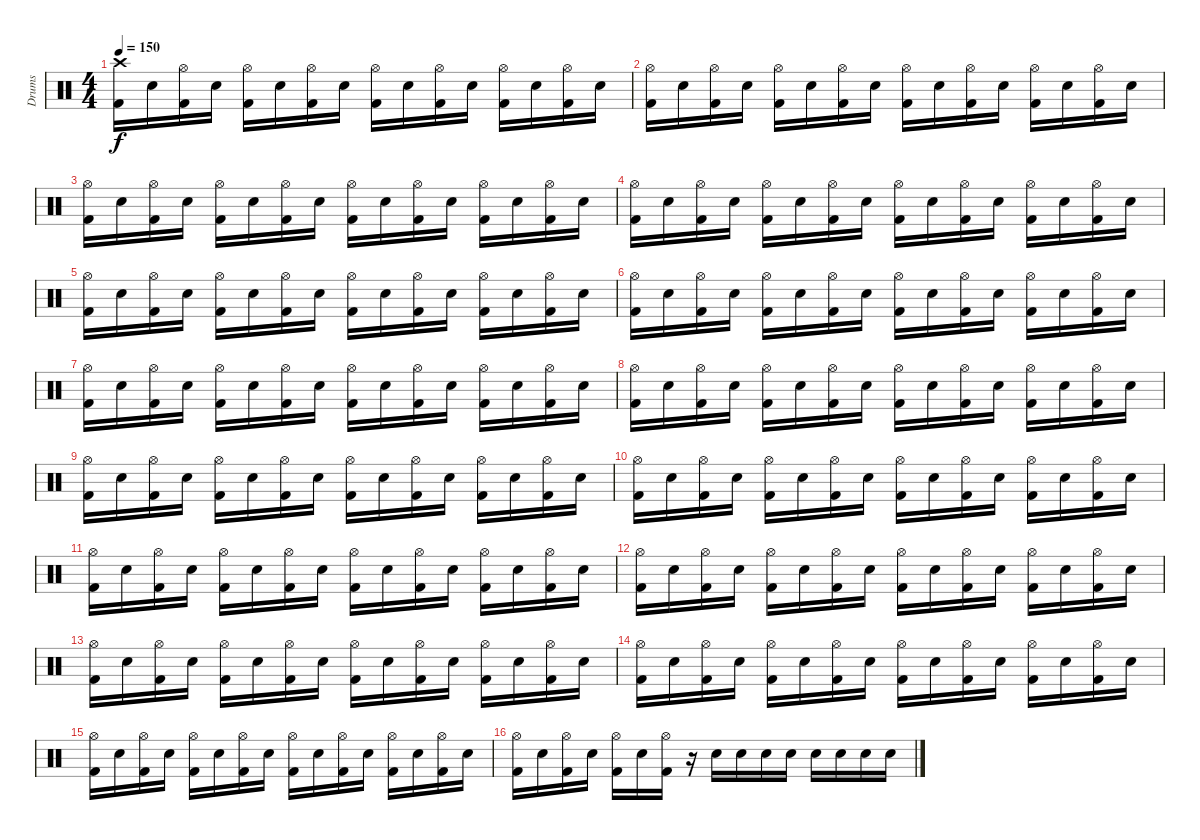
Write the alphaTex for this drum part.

\track ("Drums" "Drums") {instrument percussion}
\staff {score}
\articulation defaults
\ts (4 4)
\tempo 150
\clef neutral
\ks c
("Kick (hit) 2" "Crash high (hit)").16{dy f} "Electric Snare (hit)".16 ("Kick (hit) 2" "Hi-Hat (open)").16 "Electric Snare (hit)".16 ("Kick (hit) 2" "Hi-Hat (open)").16 "Electric Snare (hit)".16 ("Kick (hit) 2" "Hi-Hat (open)").16 "Electric Snare (hit)".16 ("Kick (hit) 2" "Hi-Hat (open)").16 "Electric Snare (hit)".16 ("Kick (hit) 2" "Hi-Hat (open)").16 "Electric Snare (hit)".16 ("Kick (hit) 2" "Hi-Hat (open)").16 "Electric Snare (hit)".16 ("Kick (hit) 2" "Hi-Hat (open)").16 "Electric Snare (hit)".16 |
("Kick (hit) 2" "Hi-Hat (open)").16 "Electric Snare (hit)".16 ("Kick (hit) 2" "Hi-Hat (open)").16 "Electric Snare (hit)".16 ("Kick (hit) 2" "Hi-Hat (open)").16 "Electric Snare (hit)".16 ("Kick (hit) 2" "Hi-Hat (open)").16 "Electric Snare (hit)".16 ("Kick (hit) 2" "Hi-Hat (open)").16 "Electric Snare (hit)".16 ("Kick (hit) 2" "Hi-Hat (open)").16 "Electric Snare (hit)".16 ("Kick (hit) 2" "Hi-Hat (open)").16 "Electric Snare (hit)".16 ("Kick (hit) 2" "Hi-Hat (open)").16 "Electric Snare (hit)".16 |
("Kick (hit) 2" "Hi-Hat (open)").16 "Electric Snare (hit)".16 ("Kick (hit) 2" "Hi-Hat (open)").16 "Electric Snare (hit)".16 ("Kick (hit) 2" "Hi-Hat (open)").16 "Electric Snare (hit)".16 ("Kick (hit) 2" "Hi-Hat (open)").16 "Electric Snare (hit)".16 ("Kick (hit) 2" "Hi-Hat (open)").16 "Electric Snare (hit)".16 ("Kick (hit) 2" "Hi-Hat (open)").16 "Electric Snare (hit)".16 ("Kick (hit) 2" "Hi-Hat (open)").16 "Electric Snare (hit)".16 ("Kick (hit) 2" "Hi-Hat (open)").16 "Electric Snare (hit)".16 |
("Kick (hit) 2" "Hi-Hat (open)").16 "Electric Snare (hit)".16 ("Kick (hit) 2" "Hi-Hat (open)").16 "Electric Snare (hit)".16 ("Kick (hit) 2" "Hi-Hat (open)").16 "Electric Snare (hit)".16 ("Kick (hit) 2" "Hi-Hat (open)").16 "Electric Snare (hit)".16 ("Kick (hit) 2" "Hi-Hat (open)").16 "Electric Snare (hit)".16 ("Kick (hit) 2" "Hi-Hat (open)").16 "Electric Snare (hit)".16 ("Kick (hit) 2" "Hi-Hat (open)").16 "Electric Snare (hit)".16 ("Kick (hit) 2" "Hi-Hat (open)").16 "Electric Snare (hit)".16 |
("Kick (hit) 2" "Hi-Hat (open)").16 "Electric Snare (hit)".16 ("Kick (hit) 2" "Hi-Hat (open)").16 "Electric Snare (hit)".16 ("Kick (hit) 2" "Hi-Hat (open)").16 "Electric Snare (hit)".16 ("Kick (hit) 2" "Hi-Hat (open)").16 "Electric Snare (hit)".16 ("Kick (hit) 2" "Hi-Hat (open)").16 "Electric Snare (hit)".16 ("Kick (hit) 2" "Hi-Hat (open)").16 "Electric Snare (hit)".16 ("Kick (hit) 2" "Hi-Hat (open)").16 "Electric Snare (hit)".16 ("Kick (hit) 2" "Hi-Hat (open)").16 "Electric Snare (hit)".16 |
("Kick (hit) 2" "Hi-Hat (open)").16 "Electric Snare (hit)".16 ("Kick (hit) 2" "Hi-Hat (open)").16 "Electric Snare (hit)".16 ("Kick (hit) 2" "Hi-Hat (open)").16 "Electric Snare (hit)".16 ("Kick (hit) 2" "Hi-Hat (open)").16 "Electric Snare (hit)".16 ("Kick (hit) 2" "Hi-Hat (open)").16 "Electric Snare (hit)".16 ("Kick (hit) 2" "Hi-Hat (open)").16 "Electric Snare (hit)".16 ("Kick (hit) 2" "Hi-Hat (open)").16 "Electric Snare (hit)".16 ("Kick (hit) 2" "Hi-Hat (open)").16 "Electric Snare (hit)".16 |
("Kick (hit) 2" "Hi-Hat (open)").16 "Electric Snare (hit)".16 ("Kick (hit) 2" "Hi-Hat (open)").16 "Electric Snare (hit)".16 ("Kick (hit) 2" "Hi-Hat (open)").16 "Electric Snare (hit)".16 ("Kick (hit) 2" "Hi-Hat (open)").16 "Electric Snare (hit)".16 ("Kick (hit) 2" "Hi-Hat (open)").16 "Electric Snare (hit)".16 ("Kick (hit) 2" "Hi-Hat (open)").16 "Electric Snare (hit)".16 ("Kick (hit) 2" "Hi-Hat (open)").16 "Electric Snare (hit)".16 ("Kick (hit) 2" "Hi-Hat (open)").16 "Electric Snare (hit)".16 |
("Kick (hit) 2" "Hi-Hat (open)").16 "Electric Snare (hit)".16 ("Kick (hit) 2" "Hi-Hat (open)").16 "Electric Snare (hit)".16 ("Kick (hit) 2" "Hi-Hat (open)").16 "Electric Snare (hit)".16 ("Kick (hit) 2" "Hi-Hat (open)").16 "Electric Snare (hit)".16 ("Kick (hit) 2" "Hi-Hat (open)").16 "Electric Snare (hit)".16 ("Kick (hit) 2" "Hi-Hat (open)").16 "Electric Snare (hit)".16 ("Kick (hit) 2" "Hi-Hat (open)").16 "Electric Snare (hit)".16 ("Kick (hit) 2" "Hi-Hat (open)").16 "Electric Snare (hit)".16 |
("Kick (hit) 2" "Hi-Hat (open)").16 "Electric Snare (hit)".16 ("Kick (hit) 2" "Hi-Hat (open)").16 "Electric Snare (hit)".16 ("Kick (hit) 2" "Hi-Hat (open)").16 "Electric Snare (hit)".16 ("Kick (hit) 2" "Hi-Hat (open)").16 "Electric Snare (hit)".16 ("Kick (hit) 2" "Hi-Hat (open)").16 "Electric Snare (hit)".16 ("Kick (hit) 2" "Hi-Hat (open)").16 "Electric Snare (hit)".16 ("Kick (hit) 2" "Hi-Hat (open)").16 "Electric Snare (hit)".16 ("Kick (hit) 2" "Hi-Hat (open)").16 "Electric Snare (hit)".16 |
("Kick (hit) 2" "Hi-Hat (open)").16 "Electric Snare (hit)".16 ("Kick (hit) 2" "Hi-Hat (open)").16 "Electric Snare (hit)".16 ("Kick (hit) 2" "Hi-Hat (open)").16 "Electric Snare (hit)".16 ("Kick (hit) 2" "Hi-Hat (open)").16 "Electric Snare (hit)".16 ("Kick (hit) 2" "Hi-Hat (open)").16 "Electric Snare (hit)".16 ("Kick (hit) 2" "Hi-Hat (open)").16 "Electric Snare (hit)".16 ("Kick (hit) 2" "Hi-Hat (open)").16 "Electric Snare (hit)".16 ("Kick (hit) 2" "Hi-Hat (open)").16 "Electric Snare (hit)".16 |
("Kick (hit) 2" "Hi-Hat (open)").16 "Electric Snare (hit)".16 ("Kick (hit) 2" "Hi-Hat (open)").16 "Electric Snare (hit)".16 ("Kick (hit) 2" "Hi-Hat (open)").16 "Electric Snare (hit)".16 ("Kick (hit) 2" "Hi-Hat (open)").16 "Electric Snare (hit)".16 ("Kick (hit) 2" "Hi-Hat (open)").16 "Electric Snare (hit)".16 ("Kick (hit) 2" "Hi-Hat (open)").16 "Electric Snare (hit)".16 ("Kick (hit) 2" "Hi-Hat (open)").16 "Electric Snare (hit)".16 ("Kick (hit) 2" "Hi-Hat (open)").16 "Electric Snare (hit)".16 |
("Kick (hit) 2" "Hi-Hat (open)").16 "Electric Snare (hit)".16 ("Kick (hit) 2" "Hi-Hat (open)").16 "Electric Snare (hit)".16 ("Kick (hit) 2" "Hi-Hat (open)").16 "Electric Snare (hit)".16 ("Kick (hit) 2" "Hi-Hat (open)").16 "Electric Snare (hit)".16 ("Kick (hit) 2" "Hi-Hat (open)").16 "Electric Snare (hit)".16 ("Kick (hit) 2" "Hi-Hat (open)").16 "Electric Snare (hit)".16 ("Kick (hit) 2" "Hi-Hat (open)").16 "Electric Snare (hit)".16 ("Kick (hit) 2" "Hi-Hat (open)").16 "Electric Snare (hit)".16 |
("Kick (hit) 2" "Hi-Hat (open)").16 "Electric Snare (hit)".16 ("Kick (hit) 2" "Hi-Hat (open)").16 "Electric Snare (hit)".16 ("Kick (hit) 2" "Hi-Hat (open)").16 "Electric Snare (hit)".16 ("Kick (hit) 2" "Hi-Hat (open)").16 "Electric Snare (hit)".16 ("Kick (hit) 2" "Hi-Hat (open)").16 "Electric Snare (hit)".16 ("Kick (hit) 2" "Hi-Hat (open)").16 "Electric Snare (hit)".16 ("Kick (hit) 2" "Hi-Hat (open)").16 "Electric Snare (hit)".16 ("Kick (hit) 2" "Hi-Hat (open)").16 "Electric Snare (hit)".16 |
("Kick (hit) 2" "Hi-Hat (open)").16 "Electric Snare (hit)".16 ("Kick (hit) 2" "Hi-Hat (open)").16 "Electric Snare (hit)".16 ("Kick (hit) 2" "Hi-Hat (open)").16 "Electric Snare (hit)".16 ("Kick (hit) 2" "Hi-Hat (open)").16 "Electric Snare (hit)".16 ("Kick (hit) 2" "Hi-Hat (open)").16 "Electric Snare (hit)".16 ("Kick (hit) 2" "Hi-Hat (open)").16 "Electric Snare (hit)".16 ("Kick (hit) 2" "Hi-Hat (open)").16 "Electric Snare (hit)".16 ("Kick (hit) 2" "Hi-Hat (open)").16 "Electric Snare (hit)".16 |
("Kick (hit) 2" "Hi-Hat (open)").16 "Electric Snare (hit)".16 ("Kick (hit) 2" "Hi-Hat (open)").16 "Electric Snare (hit)".16 ("Kick (hit) 2" "Hi-Hat (open)").16 "Electric Snare (hit)".16 ("Kick (hit) 2" "Hi-Hat (open)").16 "Electric Snare (hit)".16 ("Kick (hit) 2" "Hi-Hat (open)").16 "Electric Snare (hit)".16 ("Kick (hit) 2" "Hi-Hat (open)").16 "Electric Snare (hit)".16 ("Kick (hit) 2" "Hi-Hat (open)").16 "Electric Snare (hit)".16 ("Kick (hit) 2" "Hi-Hat (open)").16 "Electric Snare (hit)".16 |
("Kick (hit) 2" "Hi-Hat (open)").16 "Electric Snare (hit)".16 ("Kick (hit) 2" "Hi-Hat (open)").16 "Electric Snare (hit)".16 ("Kick (hit) 2" "Hi-Hat (open)").16 "Electric Snare (hit)".16 ("Kick (hit) 2" "Hi-Hat (open)").16 r.16 "Electric Snare (hit)".16 "Electric Snare (hit)".16 "Electric Snare (hit)".16 "Electric Snare (hit)".16 "Electric Snare (hit)".16 "Electric Snare (hit)".16 "Electric Snare (hit)".16 "Electric Snare (hit)".16
